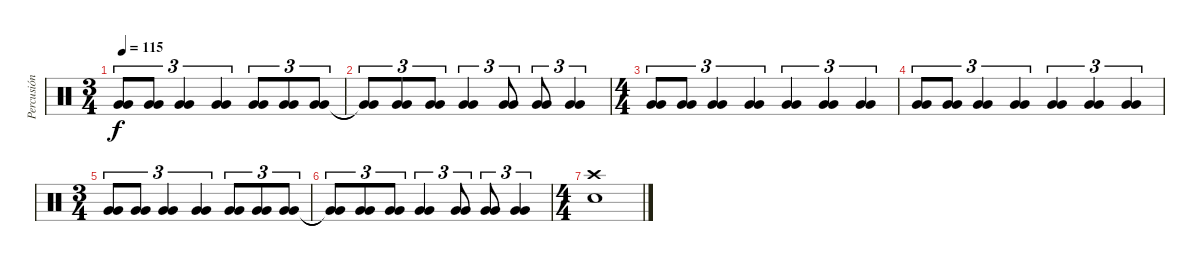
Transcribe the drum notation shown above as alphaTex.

\track ("Percusión" "Percusión") {instrument percussion}
\staff {score}
\articulation defaults
\ts (3 4)
\tempo 115
\clef neutral
\ks c
("Very Low Tom (hit)" "Very Low Tom (hit)").8{tu (3 2) dy f} ("Very Low Tom (hit)" "Very Low Tom (hit)").8{tu (3 2)} ("Very Low Tom (hit)" "Very Low Tom (hit)").4{tu (3 2)} ("Very Low Tom (hit)" "Very Low Tom (hit)").4{tu (3 2)} ("Very Low Tom (hit)" "Very Low Tom (hit)").8{tu (3 2)} ("Very Low Tom (hit)" "Very Low Tom (hit)").8{tu (3 2)} ("Very Low Tom (hit)" "Very Low Tom (hit)").8{tu (3 2)} |
("Very Low Tom (hit)"{t} "Very Low Tom (hit)"{t}).8{tu (3 2)} ("Very Low Tom (hit)" "Very Low Tom (hit)").8{tu (3 2)} ("Very Low Tom (hit)" "Very Low Tom (hit)").8{tu (3 2)} ("Very Low Tom (hit)" "Very Low Tom (hit)").4{tu (3 2)} ("Very Low Tom (hit)" "Very Low Tom (hit)").8{tu (3 2)} ("Very Low Tom (hit)" "Very Low Tom (hit)").8{tu (3 2)} ("Very Low Tom (hit)" "Very Low Tom (hit)").4{tu (3 2)} |
\ts (4 4)
("Very Low Tom (hit)" "Very Low Tom (hit)").8{tu (3 2)} ("Very Low Tom (hit)" "Very Low Tom (hit)").8{tu (3 2)} ("Very Low Tom (hit)" "Very Low Tom (hit)").4{tu (3 2)} ("Very Low Tom (hit)" "Very Low Tom (hit)").4{tu (3 2)} ("Very Low Tom (hit)" "Very Low Tom (hit)").4{tu (3 2)} ("Very Low Tom (hit)" "Very Low Tom (hit)").4{tu (3 2)} ("Very Low Tom (hit)" "Very Low Tom (hit)").4{tu (3 2)} |
("Very Low Tom (hit)" "Very Low Tom (hit)").8{tu (3 2)} ("Very Low Tom (hit)" "Very Low Tom (hit)").8{tu (3 2)} ("Very Low Tom (hit)" "Very Low Tom (hit)").4{tu (3 2)} ("Very Low Tom (hit)" "Very Low Tom (hit)").4{tu (3 2)} ("Very Low Tom (hit)" "Very Low Tom (hit)").4{tu (3 2)} ("Very Low Tom (hit)" "Very Low Tom (hit)").4{tu (3 2)} ("Very Low Tom (hit)" "Very Low Tom (hit)").4{tu (3 2)} |
\ts (3 4)
("Very Low Tom (hit)" "Very Low Tom (hit)").8{tu (3 2)} ("Very Low Tom (hit)" "Very Low Tom (hit)").8{tu (3 2)} ("Very Low Tom (hit)" "Very Low Tom (hit)").4{tu (3 2)} ("Very Low Tom (hit)" "Very Low Tom (hit)").4{tu (3 2)} ("Very Low Tom (hit)" "Very Low Tom (hit)").8{tu (3 2)} ("Very Low Tom (hit)" "Very Low Tom (hit)").8{tu (3 2)} ("Very Low Tom (hit)" "Very Low Tom (hit)").8{tu (3 2)} |
("Very Low Tom (hit)"{t} "Very Low Tom (hit)"{t}).8{tu (3 2)} ("Very Low Tom (hit)" "Very Low Tom (hit)").8{tu (3 2)} ("Very Low Tom (hit)" "Very Low Tom (hit)").8{tu (3 2)} ("Very Low Tom (hit)" "Very Low Tom (hit)").4{tu (3 2)} ("Very Low Tom (hit)" "Very Low Tom (hit)").8{tu (3 2)} ("Very Low Tom (hit)" "Very Low Tom (hit)").8{tu (3 2)} ("Very Low Tom (hit)" "Very Low Tom (hit)").4{tu (3 2)} |
\ts (4 4)
("Crash high (hit)" "Electric Snare (hit)").1
